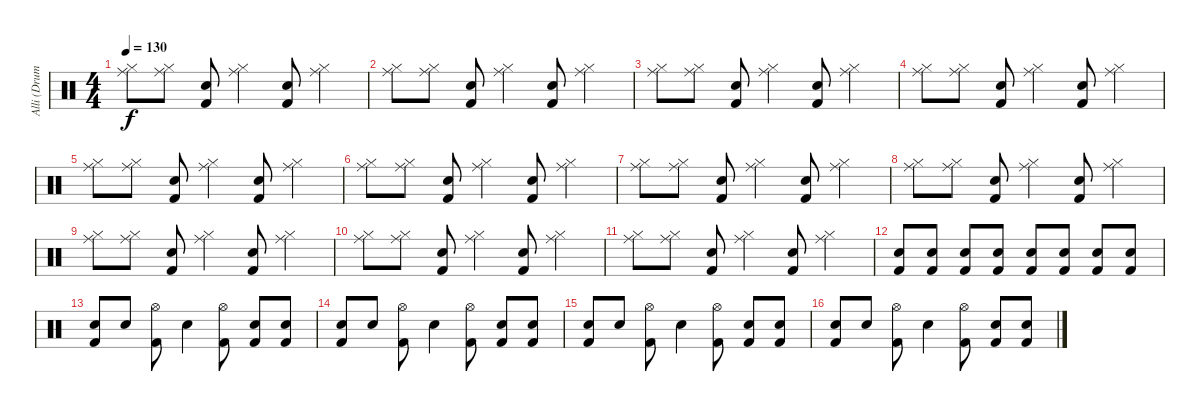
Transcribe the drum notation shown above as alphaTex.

\track ("Alli (Drums)" "Alli (Drum") {instrument percussion}
\staff {score}
\articulation defaults
\ts (4 4)
\tempo 130
\clef neutral
\ks c
("Ride (middle)" "Hi-Hat (closed)").8{dy f} ("Ride (middle)" "Hi-Hat (closed)").8 ("Kick (hit) 2" "Snare (hit) 2").8 ("Ride (middle)" "Hi-Hat (closed)").4 ("Kick (hit) 2" "Snare (hit) 2").8 ("Ride (middle)" "Hi-Hat (closed)").4 |
("Ride (middle)" "Hi-Hat (closed)").8 ("Ride (middle)" "Hi-Hat (closed)").8 ("Kick (hit) 2" "Snare (hit) 2").8 ("Ride (middle)" "Hi-Hat (closed)").4 ("Kick (hit) 2" "Snare (hit) 2").8 ("Ride (middle)" "Hi-Hat (closed)").4 |
("Ride (middle)" "Hi-Hat (closed)").8 ("Ride (middle)" "Hi-Hat (closed)").8 ("Kick (hit) 2" "Snare (hit) 2").8 ("Ride (middle)" "Hi-Hat (closed)").4 ("Kick (hit) 2" "Snare (hit) 2").8 ("Ride (middle)" "Hi-Hat (closed)").4 |
("Ride (middle)" "Hi-Hat (closed)").8 ("Ride (middle)" "Hi-Hat (closed)").8 ("Kick (hit) 2" "Snare (hit) 2").8 ("Ride (middle)" "Hi-Hat (closed)").4 ("Kick (hit) 2" "Snare (hit) 2").8 ("Ride (middle)" "Hi-Hat (closed)").4 |
("Ride (middle)" "Hi-Hat (closed)").8 ("Ride (middle)" "Hi-Hat (closed)").8 ("Kick (hit) 2" "Snare (hit) 2").8 ("Ride (middle)" "Hi-Hat (closed)").4 ("Kick (hit) 2" "Snare (hit) 2").8 ("Ride (middle)" "Hi-Hat (closed)").4 |
("Ride (middle)" "Hi-Hat (closed)").8 ("Ride (middle)" "Hi-Hat (closed)").8 ("Kick (hit) 2" "Snare (hit) 2").8 ("Ride (middle)" "Hi-Hat (closed)").4 ("Kick (hit) 2" "Snare (hit) 2").8 ("Ride (middle)" "Hi-Hat (closed)").4 |
("Ride (middle)" "Hi-Hat (closed)").8 ("Ride (middle)" "Hi-Hat (closed)").8 ("Kick (hit) 2" "Snare (hit) 2").8 ("Ride (middle)" "Hi-Hat (closed)").4 ("Kick (hit) 2" "Snare (hit) 2").8 ("Ride (middle)" "Hi-Hat (closed)").4 |
("Ride (middle)" "Hi-Hat (closed)").8 ("Ride (middle)" "Hi-Hat (closed)").8 ("Kick (hit) 2" "Snare (hit) 2").8 ("Ride (middle)" "Hi-Hat (closed)").4 ("Kick (hit) 2" "Snare (hit) 2").8 ("Ride (middle)" "Hi-Hat (closed)").4 |
("Ride (middle)" "Hi-Hat (closed)").8 ("Ride (middle)" "Hi-Hat (closed)").8 ("Kick (hit) 2" "Snare (hit) 2").8 ("Ride (middle)" "Hi-Hat (closed)").4 ("Kick (hit) 2" "Snare (hit) 2").8 ("Ride (middle)" "Hi-Hat (closed)").4 |
("Ride (middle)" "Hi-Hat (closed)").8 ("Ride (middle)" "Hi-Hat (closed)").8 ("Kick (hit) 2" "Snare (hit) 2").8 ("Ride (middle)" "Hi-Hat (closed)").4 ("Kick (hit) 2" "Snare (hit) 2").8 ("Ride (middle)" "Hi-Hat (closed)").4 |
("Ride (middle)" "Hi-Hat (closed)").8 ("Ride (middle)" "Hi-Hat (closed)").8 ("Kick (hit) 2" "Snare (hit) 2").8 ("Ride (middle)" "Hi-Hat (closed)").4 ("Kick (hit) 2" "Snare (hit) 2").8 ("Ride (middle)" "Hi-Hat (closed)").4 |
("Snare (hit) 2" "Kick (hit) 2").8 ("Snare (hit) 2" "Kick (hit) 2").8 ("Snare (hit) 2" "Kick (hit) 2").8 ("Snare (hit) 2" "Kick (hit) 2").8 ("Snare (hit) 2" "Kick (hit) 2").8 ("Snare (hit) 2" "Kick (hit) 2").8 ("Snare (hit) 2" "Kick (hit) 2").8 ("Snare (hit) 2" "Kick (hit) 2").8 |
("Snare (hit) 2" "Kick (hit) 2").8 "Snare (hit) 2".8 ("Hi-Hat (open)" "Kick (hit) 2").8 "Snare (hit) 2".4 ("Hi-Hat (open)" "Kick (hit) 2").8 ("Snare (hit) 2" "Kick (hit) 2").8 ("Snare (hit) 2" "Kick (hit) 2").8 |
("Snare (hit) 2" "Kick (hit) 2").8 "Snare (hit) 2".8 ("Hi-Hat (open)" "Kick (hit) 2").8 "Snare (hit) 2".4 ("Hi-Hat (open)" "Kick (hit) 2").8 ("Snare (hit) 2" "Kick (hit) 2").8 ("Snare (hit) 2" "Kick (hit) 2").8 |
("Snare (hit) 2" "Kick (hit) 2").8 "Snare (hit) 2".8 ("Hi-Hat (open)" "Kick (hit) 2").8 "Snare (hit) 2".4 ("Hi-Hat (open)" "Kick (hit) 2").8 ("Snare (hit) 2" "Kick (hit) 2").8 ("Snare (hit) 2" "Kick (hit) 2").8 |
("Snare (hit) 2" "Kick (hit) 2").8 "Snare (hit) 2".8 ("Hi-Hat (open)" "Kick (hit) 2").8 "Snare (hit) 2".4 ("Hi-Hat (open)" "Kick (hit) 2").8 ("Snare (hit) 2" "Kick (hit) 2").8 ("Snare (hit) 2" "Kick (hit) 2").8
